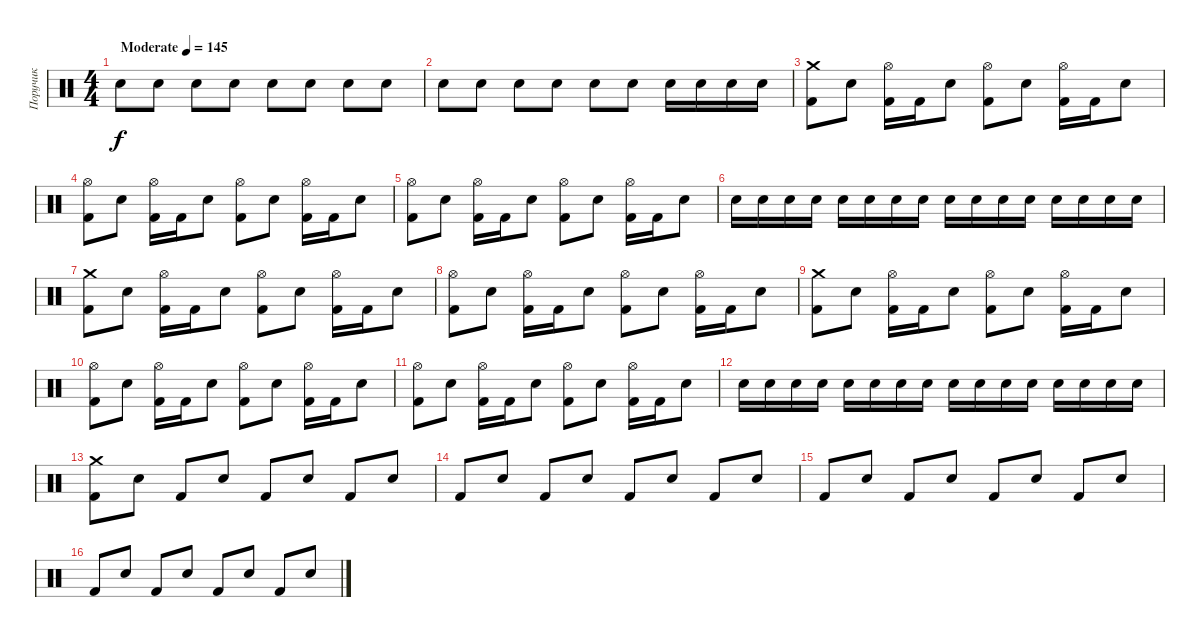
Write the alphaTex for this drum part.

\track ("Поручик" "Поручик") {instrument percussion}
\staff {score}
\articulation defaults
\ts (4 4)
\tempo (145 "Moderate")
\clef neutral
\ks c "Snare (hit) 2".8{dy f} "Snare (hit) 2".8 "Snare (hit)".8 "Snare (hit)".8 "Snare (hit) 2".8 "Snare (hit) 2".8 "Snare (hit)".8 "Snare (hit)".8
|
"Snare (hit) 2".8 "Snare (hit) 2".8 "Snare (hit)".8 "Snare (hit)".8 "Snare (hit) 2".8 "Snare (hit) 2".8 "Snare (hit) 2".16 "Snare (hit) 2".16 "Snare (hit) 2".16 "Snare (hit) 2".16 |
("Kick (hit) 2" "Crash medium (hit)").8 "Snare (hit) 2".8 ("Kick (hit) 2" "Hi-Hat (open)").16 "Kick (hit) 2".16 "Snare (hit) 2".8 ("Kick (hit) 2" "Hi-Hat (open)").8 "Snare (hit) 2".8 ("Kick (hit) 2" "Hi-Hat (open)").16 "Kick (hit) 2".16 "Snare (hit) 2".8 |
("Kick (hit) 2" "Hi-Hat (open)").8 "Snare (hit) 2".8 ("Kick (hit) 2" "Hi-Hat (open)").16 "Kick (hit) 2".16 "Snare (hit) 2".8 ("Kick (hit) 2" "Hi-Hat (open)").8 "Snare (hit) 2".8 ("Kick (hit) 2" "Hi-Hat (open)").16 "Kick (hit) 2".16 "Snare (hit) 2".8 |
("Kick (hit) 2" "Hi-Hat (open)").8 "Snare (hit) 2".8 ("Kick (hit) 2" "Hi-Hat (open)").16 "Kick (hit) 2".16 "Snare (hit) 2".8 ("Kick (hit) 2" "Hi-Hat (open)").8 "Snare (hit) 2".8 ("Kick (hit) 2" "Hi-Hat (open)").16 "Kick (hit) 2".16 "Snare (hit) 2".8 |
"Snare (hit) 2".16 "Snare (hit) 2".16 "Snare (hit) 2".16 "Snare (hit) 2".16 "Snare (hit) 2".16 "Snare (hit) 2".16 "Snare (hit) 2".16 "Snare (hit) 2".16 "Snare (hit) 2".16 "Snare (hit) 2".16 "Snare (hit) 2".16 "Snare (hit) 2".16 "Snare (hit) 2".16 "Snare (hit) 2".16 "Snare (hit) 2".16 "Snare (hit) 2".16 |
("Kick (hit) 2" "Crash medium (hit)").8 "Snare (hit) 2".8 ("Kick (hit) 2" "Hi-Hat (open)").16 "Kick (hit) 2".16 "Snare (hit) 2".8 ("Kick (hit) 2" "Hi-Hat (open)").8 "Snare (hit) 2".8 ("Kick (hit) 2" "Hi-Hat (open)").16 "Kick (hit) 2".16 "Snare (hit) 2".8 |
("Kick (hit) 2" "Hi-Hat (open)").8 "Snare (hit) 2".8 ("Kick (hit) 2" "Hi-Hat (open)").16 "Kick (hit) 2".16 "Snare (hit) 2".8 ("Kick (hit) 2" "Hi-Hat (open)").8 "Snare (hit) 2".8 ("Kick (hit) 2" "Hi-Hat (open)").16 "Kick (hit) 2".16 "Snare (hit) 2".8 |
("Kick (hit) 2" "Crash medium (hit)").8 "Snare (hit) 2".8 ("Kick (hit) 2" "Hi-Hat (open)").16 "Kick (hit) 2".16 "Snare (hit) 2".8 ("Kick (hit) 2" "Hi-Hat (open)").8 "Snare (hit) 2".8 ("Kick (hit) 2" "Hi-Hat (open)").16 "Kick (hit) 2".16 "Snare (hit) 2".8 |
("Kick (hit) 2" "Hi-Hat (open)").8 "Snare (hit) 2".8 ("Kick (hit) 2" "Hi-Hat (open)").16 "Kick (hit) 2".16 "Snare (hit) 2".8 ("Kick (hit) 2" "Hi-Hat (open)").8 "Snare (hit) 2".8 ("Kick (hit) 2" "Hi-Hat (open)").16 "Kick (hit) 2".16 "Snare (hit) 2".8 |
("Kick (hit) 2" "Hi-Hat (open)").8 "Snare (hit) 2".8 ("Kick (hit) 2" "Hi-Hat (open)").16 "Kick (hit) 2".16 "Snare (hit) 2".8 ("Kick (hit) 2" "Hi-Hat (open)").8 "Snare (hit) 2".8 ("Kick (hit) 2" "Hi-Hat (open)").16 "Kick (hit) 2".16 "Snare (hit) 2".8 |
"Snare (hit) 2".16 "Snare (hit) 2".16 "Snare (hit) 2".16 "Snare (hit) 2".16 "Snare (hit) 2".16 "Snare (hit) 2".16 "Snare (hit) 2".16 "Snare (hit) 2".16 "Snare (hit) 2".16 "Snare (hit) 2".16 "Snare (hit) 2".16 "Snare (hit) 2".16 "Snare (hit) 2".16 "Snare (hit) 2".16 "Snare (hit) 2".16 "Snare (hit) 2".16 |
("Crash medium (hit)" "Kick (hit) 2").8 "Snare (hit) 2".8 "Kick (hit) 2".8 "Snare (hit) 2".8 "Kick (hit) 2".8 "Snare (hit) 2".8 "Kick (hit) 2".8 "Snare (hit) 2".8 |
"Kick (hit) 2".8 "Snare (hit) 2".8 "Kick (hit) 2".8 "Snare (hit) 2".8 "Kick (hit) 2".8 "Snare (hit) 2".8 "Kick (hit) 2".8 "Snare (hit) 2".8 |
"Kick (hit) 2".8 "Snare (hit) 2".8 "Kick (hit) 2".8 "Snare (hit) 2".8 "Kick (hit) 2".8 "Snare (hit) 2".8 "Kick (hit) 2".8 "Snare (hit) 2".8 |
"Kick (hit) 2".8 "Snare (hit) 2".8 "Kick (hit) 2".8 "Snare (hit) 2".8 "Kick (hit) 2".8 "Snare (hit) 2".8 "Kick (hit) 2".8 "Snare (hit) 2".8
